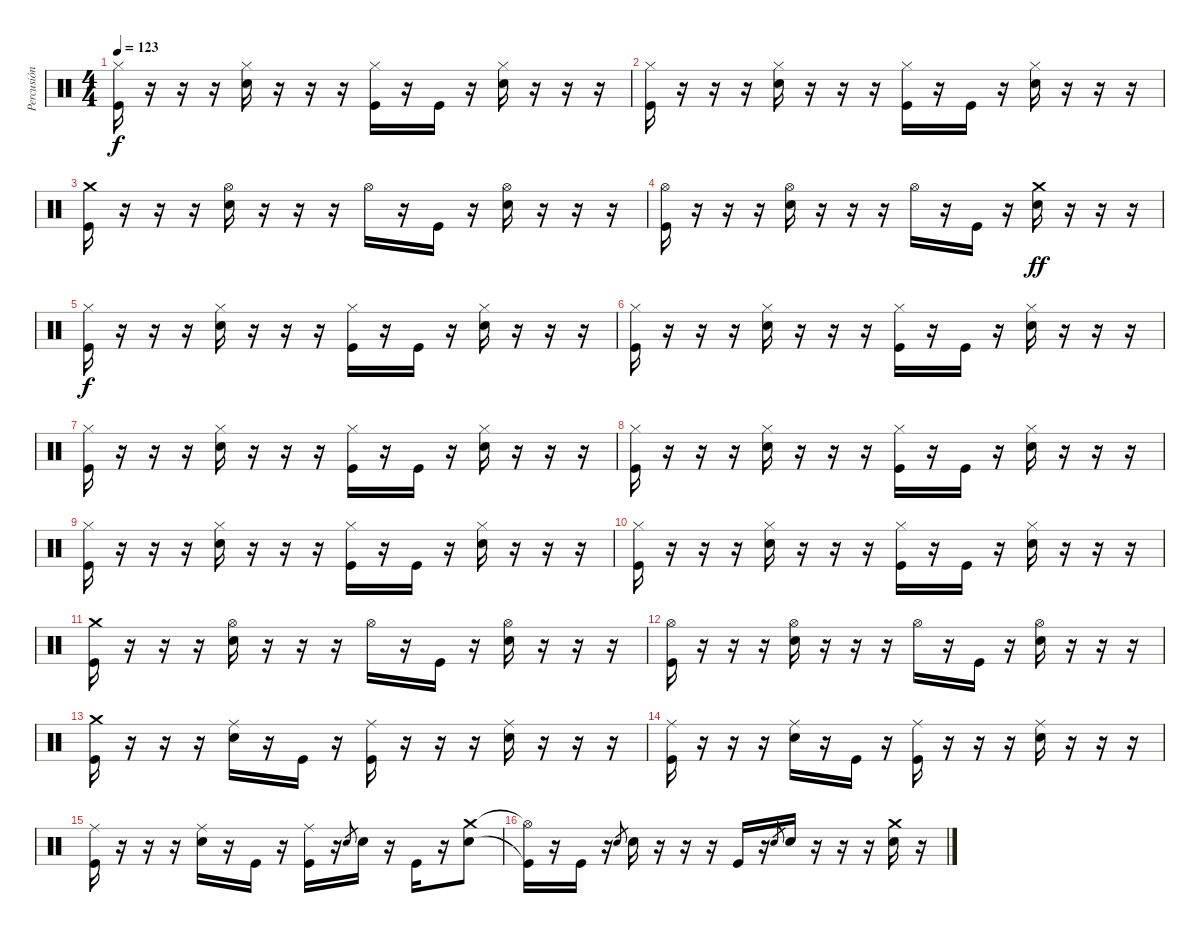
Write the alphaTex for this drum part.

\track ("Percusión" "Percusión") {instrument percussion}
\staff {score}
\articulation defaults
\ts (4 4)
\tempo 123
\clef neutral
\ks c
("Hi-Hat (closed)" "Kick (hit)").16{dy f} r.16 r.16 r.16 ("Hi-Hat (closed)" "Snare (hit) 2").16 r.16 r.16 r.16 ("Hi-Hat (closed)" "Kick (hit)").16 r.16 "Kick (hit)".16 r.16 ("Hi-Hat (closed)" "Snare (hit) 2").16 r.16 r.16 r.16 |
("Hi-Hat (closed)" "Kick (hit)").16 r.16 r.16 r.16 ("Hi-Hat (closed)" "Snare (hit) 2").16 r.16 r.16 r.16 ("Hi-Hat (closed)" "Kick (hit)").16 r.16 "Kick (hit)".16 r.16 ("Hi-Hat (closed)" "Snare (hit) 2").16 r.16 r.16 r.16 |
("Crash medium (hit)" "Kick (hit)").16 r.16 r.16 r.16 ("Hi-Hat (open)" "Snare (hit) 2").16 r.16 r.16 r.16 "Hi-Hat (open)".16 r.16 "Kick (hit)".16 r.16 ("Hi-Hat (open)" "Snare (hit) 2").16 r.16 r.16 r.16 |
("Hi-Hat (open)" "Kick (hit)").16 r.16 r.16 r.16 ("Hi-Hat (open)" "Snare (hit) 2").16 r.16 r.16 r.16 "Hi-Hat (open)".16 r.16 "Kick (hit)".16 r.16 ("Crash medium (hit)" "Snare (hit) 2").16{dy ff} r.16 r.16 r.16 |
("Hi-Hat (closed)" "Kick (hit)").16{dy f} r.16 r.16 r.16 ("Hi-Hat (closed)" "Snare (hit) 2").16 r.16 r.16 r.16 ("Hi-Hat (closed)" "Kick (hit)").16 r.16 "Kick (hit)".16 r.16 ("Hi-Hat (closed)" "Snare (hit) 2").16 r.16 r.16 r.16 |
("Hi-Hat (closed)" "Kick (hit)").16 r.16 r.16 r.16 ("Hi-Hat (closed)" "Snare (hit) 2").16 r.16 r.16 r.16 ("Hi-Hat (closed)" "Kick (hit)").16 r.16 "Kick (hit)".16 r.16 ("Hi-Hat (closed)" "Snare (hit) 2").16 r.16 r.16 r.16 |
("Hi-Hat (closed)" "Kick (hit)").16 r.16 r.16 r.16 ("Hi-Hat (closed)" "Snare (hit) 2").16 r.16 r.16 r.16 ("Hi-Hat (closed)" "Kick (hit)").16 r.16 "Kick (hit)".16 r.16 ("Hi-Hat (closed)" "Snare (hit) 2").16 r.16 r.16 r.16 |
("Hi-Hat (closed)" "Kick (hit)").16 r.16 r.16 r.16 ("Hi-Hat (closed)" "Snare (hit) 2").16 r.16 r.16 r.16 ("Hi-Hat (closed)" "Kick (hit)").16 r.16 "Kick (hit)".16 r.16 ("Hi-Hat (closed)" "Snare (hit) 2").16 r.16 r.16 r.16 |
("Hi-Hat (closed)" "Kick (hit)").16 r.16 r.16 r.16 ("Hi-Hat (closed)" "Snare (hit) 2").16 r.16 r.16 r.16 ("Hi-Hat (closed)" "Kick (hit)").16 r.16 "Kick (hit)".16 r.16 ("Hi-Hat (closed)" "Snare (hit) 2").16 r.16 r.16 r.16 |
("Hi-Hat (closed)" "Kick (hit)").16 r.16 r.16 r.16 ("Hi-Hat (closed)" "Snare (hit) 2").16 r.16 r.16 r.16 ("Hi-Hat (closed)" "Kick (hit)").16 r.16 "Kick (hit)".16 r.16 ("Hi-Hat (closed)" "Snare (hit) 2").16 r.16 r.16 r.16 |
("Crash medium (hit)" "Kick (hit)").16 r.16 r.16 r.16 ("Hi-Hat (open)" "Snare (hit) 2").16 r.16 r.16 r.16 "Hi-Hat (open)".16 r.16 "Kick (hit)".16 r.16 ("Hi-Hat (open)" "Snare (hit) 2").16 r.16 r.16 r.16 |
("Hi-Hat (open)" "Kick (hit)").16 r.16 r.16 r.16 ("Hi-Hat (open)" "Snare (hit) 2").16 r.16 r.16 r.16 "Hi-Hat (open)".16 r.16 "Kick (hit)".16 r.16 ("Hi-Hat (open)" "Snare (hit) 2").16 r.16 r.16 r.16 |
("Crash medium (hit)" "Kick (hit)").16 r.16 r.16 r.16 ("Ride (middle)" "Snare (hit) 2").16 r.16 "Kick (hit)".16 r.16 ("Ride (middle)" "Kick (hit)").16 r.16 r.16 r.16 ("Ride (middle)" "Snare (hit) 2").16 r.16 r.16 r.16 |
("Ride (middle)" "Kick (hit)").16 r.16 r.16 r.16 ("Ride (middle)" "Snare (hit) 2").16 r.16 "Kick (hit)".16 r.16 ("Ride (middle)" "Kick (hit)").16 r.16 r.16 r.16 ("Ride (middle)" "Snare (hit) 2").16 r.16 r.16 r.16 |
("Ride (middle)" "Kick (hit)").16 r.16 r.16 r.16 ("Ride (middle)" "Snare (hit) 2").16 r.16 "Kick (hit)".16 r.16 ("Ride (middle)" "Kick (hit)").16 r.16 "Snare (hit) 2".8{gr} "Snare (hit) 2".16 r.16 "Kick (hit)".16 r.16 ("Crash medium (hit)" "Snare (hit) 2").8 |
("Hi-Hat (open)"{t} "Kick (hit)"{t}).16 r.16 "Kick (hit)".16 r.16 "Snare (hit) 2".8{gr} "Snare (hit) 2".16 r.16 r.16 r.16 "Kick (hit)".16 r.16 "Snare (hit) 2".8{gr} "Snare (hit) 2".16 r.16 r.16 r.16 ("Crash medium (hit)" "Snare (hit) 2").16 r.16
